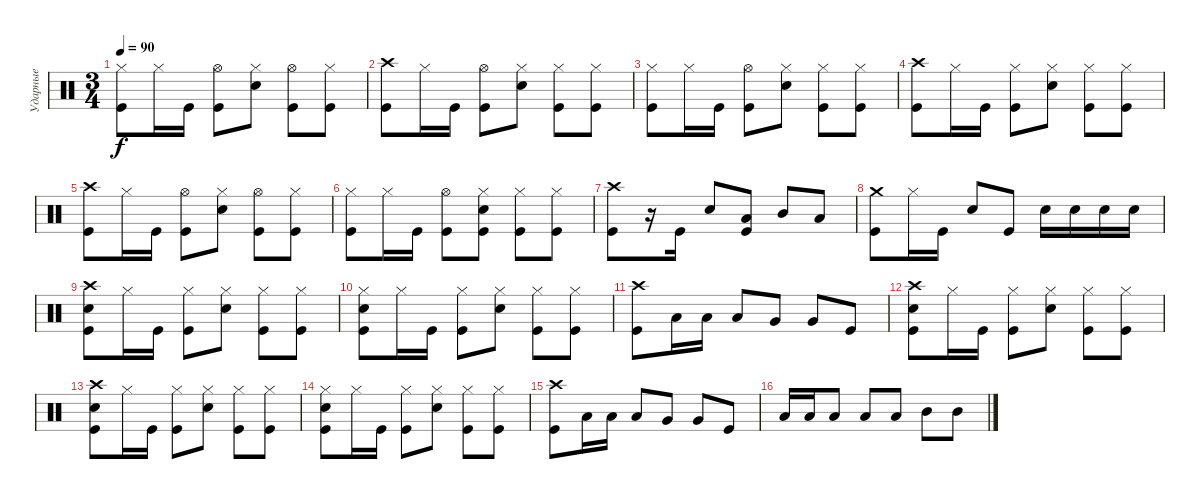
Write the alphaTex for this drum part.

\track ("Ударные" "Ударные") {instrument percussion}
\staff {score}
\articulation defaults
\ts (3 4)
\tempo 90
\clef neutral
\ks c
("Hi-Hat (closed)" "Kick (hit)").8{dy f} "Hi-Hat (closed)".16 "Kick (hit)".16 ("Hi-Hat (open)" "Kick (hit)").8 ("Hi-Hat (closed)" "Electric Snare (hit)").8 ("Hi-Hat (open)" "Kick (hit)").8 ("Hi-Hat (closed)" "Kick (hit)").8 |
("Crash high (hit)" "Kick (hit)").8 "Hi-Hat (closed)".16 "Kick (hit)".16 ("Hi-Hat (open)" "Kick (hit)").8 ("Hi-Hat (closed)" "Electric Snare (hit)").8 ("Hi-Hat (closed)" "Kick (hit)").8 ("Hi-Hat (closed)" "Kick (hit)").8 |
("Hi-Hat (closed)" "Kick (hit)").8 "Hi-Hat (closed)".16 "Kick (hit)".16 ("Hi-Hat (open)" "Kick (hit)").8 ("Hi-Hat (closed)" "Electric Snare (hit)").8 ("Hi-Hat (closed)" "Kick (hit)").8 ("Hi-Hat (closed)" "Kick (hit)").8 |
("Crash high (hit)" "Kick (hit)").8 "Hi-Hat (closed)".16 "Kick (hit)".16 ("Hi-Hat (closed)" "Kick (hit)").8 ("Hi-Hat (closed)" "Electric Snare (hit)").8 ("Hi-Hat (closed)" "Kick (hit)").8 ("Hi-Hat (closed)" "Kick (hit)").8 |
("Crash high (hit)" "Kick (hit)").8 "Hi-Hat (closed)".16 "Kick (hit)".16 ("Hi-Hat (open)" "Kick (hit)").8 ("Hi-Hat (closed)" "Electric Snare (hit)").8 ("Hi-Hat (open)" "Kick (hit)").8 ("Hi-Hat (closed)" "Kick (hit)").8 |
("Hi-Hat (closed)" "Kick (hit)").8 "Hi-Hat (closed)".16 "Kick (hit)".16 ("Hi-Hat (open)" "Kick (hit)").8 ("Hi-Hat (closed)" "Electric Snare (hit)" "Kick (hit)").8 ("Hi-Hat (closed)" "Kick (hit)").8 ("Hi-Hat (closed)" "Kick (hit)").8 |
("Crash high (hit)" "Kick (hit)").8 r.16 "Kick (hit)".16 "Electric Snare (hit)".8 ("Low Tom (hit)" "Kick (hit)").8 "Mid Tom (hit)".8 "Low Tom (hit)".8 |
("Crash medium (hit)" "Kick (hit)").8 "Hi-Hat (closed)".16 "Kick (hit)".16 "Electric Snare (hit)".8 "Kick (hit)".8 "Electric Snare (hit)".16 "Electric Snare (hit)".16 "Electric Snare (hit)".16 "Electric Snare (hit)".16 |
("Crash high (hit)" "Electric Snare (hit)" "Kick (hit)").8 "Hi-Hat (closed)".16 "Kick (hit)".16 ("Hi-Hat (closed)" "Kick (hit)").8 ("Hi-Hat (closed)" "Electric Snare (hit)").8 ("Hi-Hat (closed)" "Kick (hit)").8 ("Hi-Hat (closed)" "Kick (hit)").8 |
("Hi-Hat (closed)" "Electric Snare (hit)" "Kick (hit)").8 "Hi-Hat (closed)".16 "Kick (hit)".16 ("Hi-Hat (closed)" "Kick (hit)").8 ("Hi-Hat (closed)" "Electric Snare (hit)").8 ("Hi-Hat (closed)" "Kick (hit)").8 ("Hi-Hat (closed)" "Kick (hit)").8 |
("Crash high (hit)" "Kick (hit)").8 "Low Tom (hit)".16 "Low Tom (hit)".16 "Low Tom (hit)".8 "Very Low Tom (hit)".8 "Very Low Tom (hit)".8 "Kick (hit)".8 |
("Crash high (hit)" "Electric Snare (hit)" "Kick (hit)").8 "Hi-Hat (closed)".16 "Kick (hit)".16 ("Hi-Hat (closed)" "Kick (hit)").8 ("Hi-Hat (closed)" "Electric Snare (hit)").8 ("Hi-Hat (closed)" "Kick (hit)").8 ("Hi-Hat (closed)" "Kick (hit)").8 |
("Crash high (hit)" "Electric Snare (hit)" "Kick (hit)").8 "Hi-Hat (closed)".16 "Kick (hit)".16 ("Hi-Hat (closed)" "Kick (hit)").8 ("Hi-Hat (closed)" "Electric Snare (hit)").8 ("Hi-Hat (closed)" "Kick (hit)").8 ("Hi-Hat (closed)" "Kick (hit)").8 |
("Hi-Hat (closed)" "Electric Snare (hit)" "Kick (hit)").8 "Hi-Hat (closed)".16 "Kick (hit)".16 ("Hi-Hat (closed)" "Kick (hit)").8 ("Hi-Hat (closed)" "Electric Snare (hit)").8 ("Hi-Hat (closed)" "Kick (hit)").8 ("Hi-Hat (closed)" "Kick (hit)").8 |
("Crash high (hit)" "Kick (hit)").8 "Low Tom (hit)".16 "Low Tom (hit)".16 "Low Tom (hit)".8 "Very Low Tom (hit)".8 "Very Low Tom (hit)".8 "Kick (hit)".8 |
"Low Tom (hit)".16 "Low Tom (hit)".16 "Low Tom (hit)".8 "Low Tom (hit)".8 "Low Tom (hit)".8 "Mid Tom (hit)".8 "Mid Tom (hit)".8
